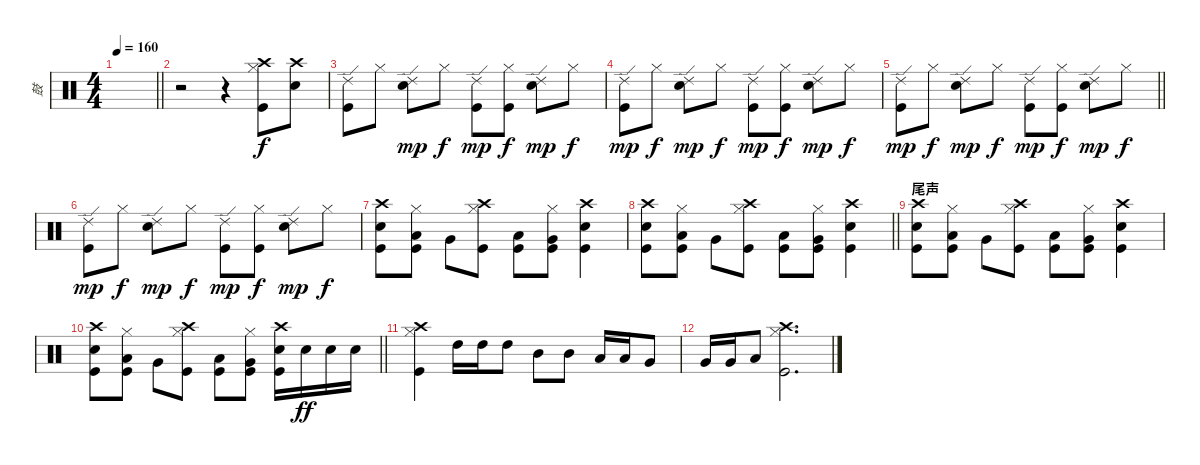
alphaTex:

\track ("鼓" "鼓") {instrument percussion}
\staff {score}
\articulation defaults
\ts (4 4)
\tempo 160
\clef neutral
\barLineRight lightlight
\ks c
|
r.2 r.4 ("Crash high (hit)" "Hi-Hat (closed)" "Kick (hit)").8{volume 16} ("Crash high (hit)" "Electric Snare (hit)").8 |
("Ride (edge) 2" "Kick (hit)").8 "Hi-Hat (closed)".8{dy f} ("Ride (edge) 2" "Electric Snare (hit)").8{dy mp} "Hi-Hat (closed)".8{dy f} ("Ride (edge) 2" "Kick (hit)").8{dy mp} ("Hi-Hat (closed)" "Kick (hit)").8{dy f} ("Ride (edge) 2" "Electric Snare (hit)").8{dy mp} "Hi-Hat (closed)".8{dy f} |
("Ride (edge) 2" "Kick (hit)").8{dy mp} "Hi-Hat (closed)".8{dy f} ("Ride (edge) 2" "Electric Snare (hit)").8{dy mp} "Hi-Hat (closed)".8{dy f} ("Ride (edge) 2" "Kick (hit)").8{dy mp} ("Hi-Hat (closed)" "Kick (hit)").8{dy f} ("Ride (edge) 2" "Electric Snare (hit)").8{dy mp} "Hi-Hat (closed)".8{dy f} |
\barLineRight lightlight
("Ride (edge) 2" "Kick (hit)").8{dy mp} "Hi-Hat (closed)".8{dy f} ("Ride (edge) 2" "Electric Snare (hit)").8{dy mp} "Hi-Hat (closed)".8{dy f} ("Ride (edge) 2" "Kick (hit)").8{dy mp} ("Hi-Hat (closed)" "Kick (hit)").8{dy f} ("Ride (edge) 2" "Electric Snare (hit)").8{dy mp} "Hi-Hat (closed)".8{dy f} |
("Ride (edge) 2" "Kick (hit)").8{dy mp} "Hi-Hat (closed)".8{dy f} ("Ride (edge) 2" "Electric Snare (hit)").8{dy mp} "Hi-Hat (closed)".8{dy f} ("Ride (edge) 2" "Kick (hit)").8{dy mp} ("Hi-Hat (closed)" "Kick (hit)").8{dy f} ("Ride (edge) 2" "Electric Snare (hit)").8{dy mp} "Hi-Hat (closed)".8{dy f} |
("Crash high (hit)" "Electric Snare (hit)" "Kick (hit)").8 ("Low Tom (hit)" "Hi-Hat (closed)" "Kick (hit)").8{volume 16} "Very Low Tom (hit)".8{volume 16} ("Crash high (hit)" "Hi-Hat (closed)" "Kick (hit)").8 ("Low Tom (hit)" "Kick (hit)").8{volume 16} ("Very Low Tom (hit)" "Hi-Hat (closed)" "Kick (hit)").8{volume 16} ("Crash high (hit)" "Electric Snare (hit)" "Kick (hit)").4 |
\barLineRight lightlight
("Crash high (hit)" "Electric Snare (hit)" "Kick (hit)").8 ("Low Tom (hit)" "Hi-Hat (closed)" "Kick (hit)").8{volume 16} "Very Low Tom (hit)".8{volume 16} ("Crash high (hit)" "Hi-Hat (closed)" "Kick (hit)").8 ("Low Tom (hit)" "Kick (hit)").8{volume 16} ("Very Low Tom (hit)" "Hi-Hat (closed)" "Kick (hit)").8{volume 16} ("Crash high (hit)" "Electric Snare (hit)" "Kick (hit)").4 |
\section ("" "尾声")
("Crash high (hit)" "Electric Snare (hit)" "Kick (hit)").8 ("Low Tom (hit)" "Hi-Hat (closed)" "Kick (hit)").8{volume 16} "Very Low Tom (hit)".8{volume 16} ("Crash high (hit)" "Hi-Hat (closed)" "Kick (hit)").8 ("Low Tom (hit)" "Kick (hit)").8{volume 16} ("Very Low Tom (hit)" "Hi-Hat (closed)" "Kick (hit)").8{volume 16} ("Crash high (hit)" "Electric Snare (hit)" "Kick (hit)").4 |
\barLineRight lightlight
("Crash high (hit)" "Electric Snare (hit)" "Kick (hit)").8 ("Low Tom (hit)" "Hi-Hat (closed)" "Kick (hit)").8{volume 16} "Very Low Tom (hit)".8{volume 16} ("Crash high (hit)" "Hi-Hat (closed)" "Kick (hit)").8 ("Low Tom (hit)" "Kick (hit)").8{volume 16} ("Very Low Tom (hit)" "Hi-Hat (closed)" "Kick (hit)").8{volume 16} ("Crash high (hit)" "Electric Snare (hit)" "Kick (hit)").16 "Electric Snare (hit)".16{dy ff} "Electric Snare (hit)".16 "Electric Snare (hit)".16 |
("Crash high (hit)" "Hi-Hat (closed)" "Kick (hit)").4 "High Tom (hit)".16 "High Tom (hit)".16 "High Tom (hit)".8 "Mid Tom (hit)".8 "Mid Tom (hit)".8 "Low Tom (hit)".16 "Low Tom (hit)".16 "Very Low Tom (hit)".8 |
"Very Low Tom (hit)".16 "Very Low Tom (hit)".16 "Low Floor Tom (hit)".8 ("Crash high (hit)" "Hi-Hat (closed)" "Kick (hit)").2{d}
